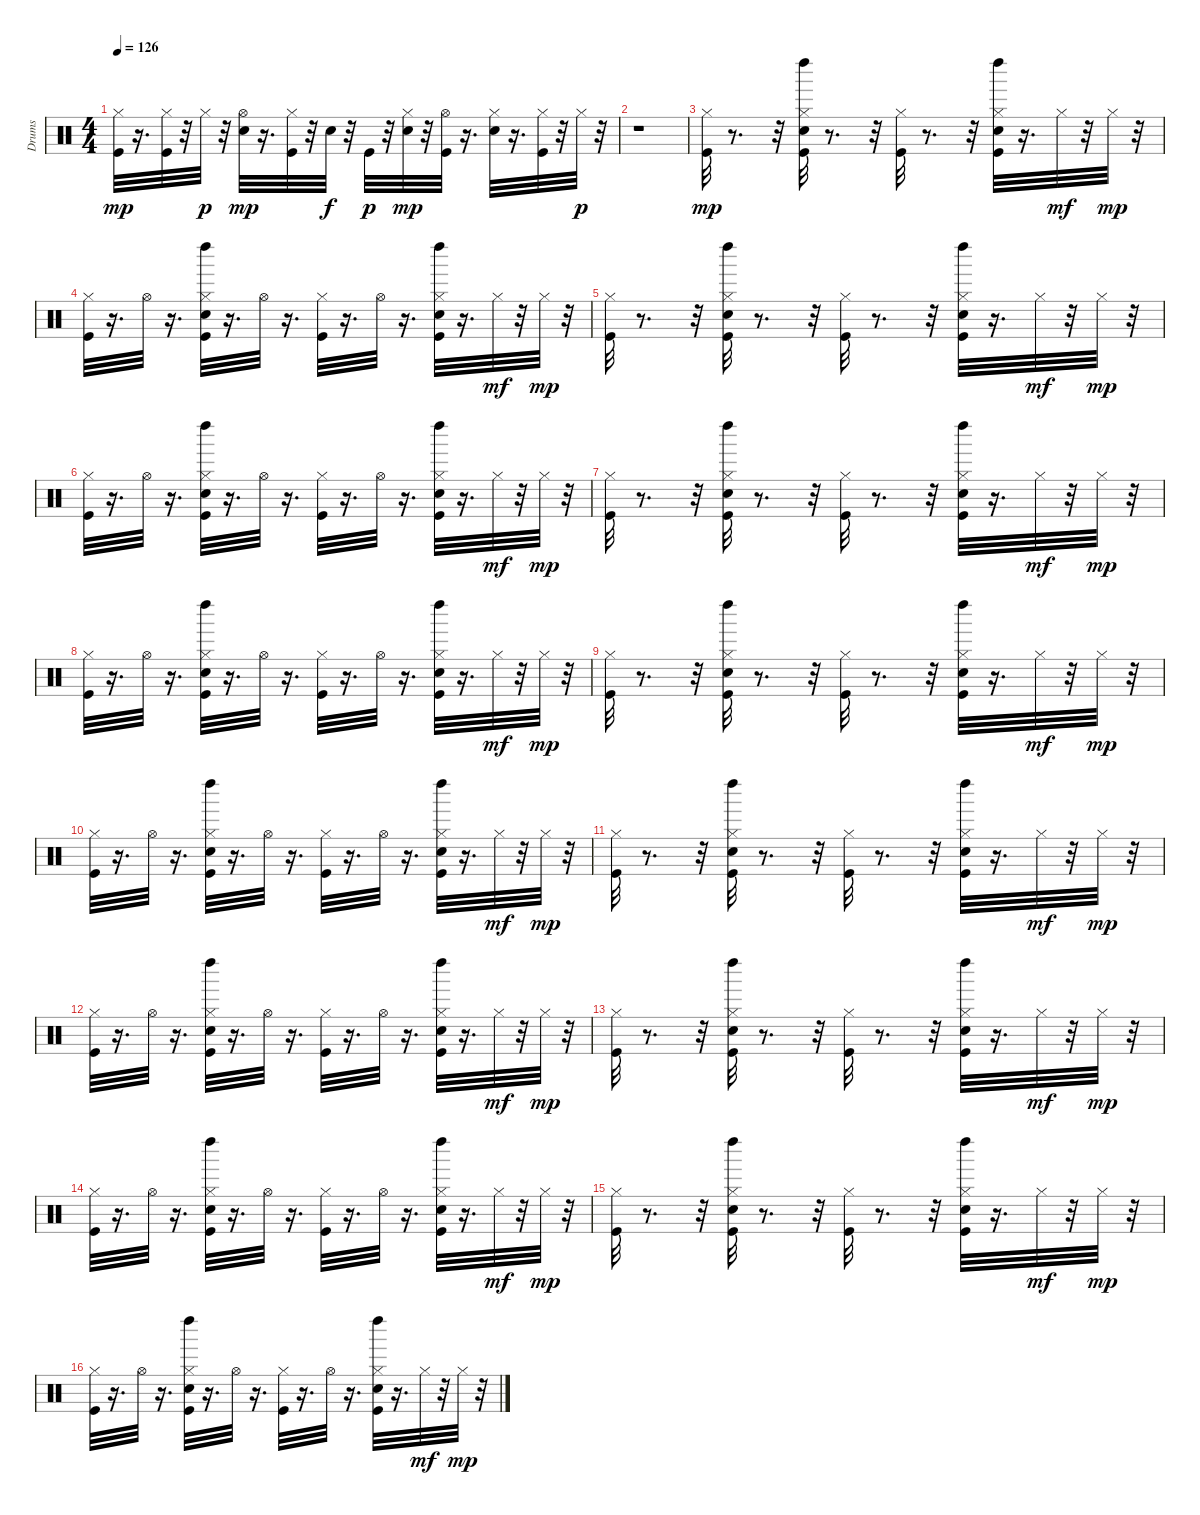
\track ("Drums" "Drums") {instrument percussion}
\staff {score}
\articulation defaults
\ts (4 4)
\tempo 126
\clef neutral
\ks c
("Kick (hit)" "Hi-Hat (closed)").32{dy mp} r.16{d} ("Kick (hit)" "Hi-Hat (closed)").32 r.32 "Hi-Hat (closed)".32{dy p} r.32 ("Snare (hit) 2" "Hi-Hat (open)").32{dy mp} r.16{d} ("Kick (hit)" "Hi-Hat (closed)").32 r.32 "Snare (hit) 2".32{dy f} r.32 "Kick (hit)".32{dy p} r.32 ("Snare (hit) 2" "Hi-Hat (closed)").32{dy mp} r.32 ("Kick (hit)" "Hi-Hat (open)").32 r.16{d} ("Snare (hit) 2" "Hi-Hat (closed)").32 r.16{d} ("Kick (hit)" "Hi-Hat (closed)").32 r.32 "Hi-Hat (closed)".32{dy p} r.32 |
r.1 |
("Kick (hit)" "Hi-Hat (closed)").32{dy mp} r.8{d} r.32 ("Kick (hit)" "Hand Clap (hit)" "Hi-Hat (closed)" "Left Maraca (hit)").32 r.8{d} r.32 ("Kick (hit)" "Hi-Hat (closed)").32 r.8{d} r.32 ("Kick (hit)" "Hand Clap (hit)" "Hi-Hat (closed)" "Left Maraca (hit)").32 r.16{d} "Hi-Hat (closed)".32{dy mf} r.32 "Hi-Hat (closed)".32{dy mp} r.32 |
("Kick (hit)" "Hi-Hat (closed)").32 r.16{d} "Hi-Hat (open)".32 r.16{d} ("Kick (hit)" "Hand Clap (hit)" "Hi-Hat (closed)" "Left Maraca (hit)").32 r.16{d} "Hi-Hat (open)".32 r.16{d} ("Kick (hit)" "Hi-Hat (closed)").32 r.16{d} "Hi-Hat (open)".32 r.16{d} ("Kick (hit)" "Hand Clap (hit)" "Hi-Hat (closed)" "Left Maraca (hit)").32 r.16{d} "Hi-Hat (closed)".32{dy mf} r.32 "Hi-Hat (closed)".32{dy mp} r.32 |
("Kick (hit)" "Hi-Hat (closed)").32 r.8{d} r.32 ("Kick (hit)" "Hand Clap (hit)" "Hi-Hat (closed)" "Left Maraca (hit)").32 r.8{d} r.32 ("Kick (hit)" "Hi-Hat (closed)").32 r.8{d} r.32 ("Kick (hit)" "Hand Clap (hit)" "Hi-Hat (closed)" "Left Maraca (hit)").32 r.16{d} "Hi-Hat (closed)".32{dy mf} r.32 "Hi-Hat (closed)".32{dy mp} r.32 |
("Kick (hit)" "Hi-Hat (closed)").32 r.16{d} "Hi-Hat (open)".32 r.16{d} ("Kick (hit)" "Hand Clap (hit)" "Hi-Hat (closed)" "Left Maraca (hit)").32 r.16{d} "Hi-Hat (open)".32 r.16{d} ("Kick (hit)" "Hi-Hat (closed)").32 r.16{d} "Hi-Hat (open)".32 r.16{d} ("Kick (hit)" "Hand Clap (hit)" "Hi-Hat (closed)" "Left Maraca (hit)").32 r.16{d} "Hi-Hat (closed)".32{dy mf} r.32 "Hi-Hat (closed)".32{dy mp} r.32 |
("Kick (hit)" "Hi-Hat (closed)").32 r.8{d} r.32 ("Kick (hit)" "Hand Clap (hit)" "Hi-Hat (closed)" "Left Maraca (hit)").32 r.8{d} r.32 ("Kick (hit)" "Hi-Hat (closed)").32 r.8{d} r.32 ("Kick (hit)" "Hand Clap (hit)" "Hi-Hat (closed)" "Left Maraca (hit)").32 r.16{d} "Hi-Hat (closed)".32{dy mf} r.32 "Hi-Hat (closed)".32{dy mp} r.32 |
("Kick (hit)" "Hi-Hat (closed)").32 r.16{d} "Hi-Hat (open)".32 r.16{d} ("Kick (hit)" "Hand Clap (hit)" "Hi-Hat (closed)" "Left Maraca (hit)").32 r.16{d} "Hi-Hat (open)".32 r.16{d} ("Kick (hit)" "Hi-Hat (closed)").32 r.16{d} "Hi-Hat (open)".32 r.16{d} ("Kick (hit)" "Hand Clap (hit)" "Hi-Hat (closed)" "Left Maraca (hit)").32 r.16{d} "Hi-Hat (closed)".32{dy mf} r.32 "Hi-Hat (closed)".32{dy mp} r.32 |
("Kick (hit)" "Hi-Hat (closed)").32 r.8{d} r.32 ("Kick (hit)" "Hand Clap (hit)" "Hi-Hat (closed)" "Left Maraca (hit)").32 r.8{d} r.32 ("Kick (hit)" "Hi-Hat (closed)").32 r.8{d} r.32 ("Kick (hit)" "Hand Clap (hit)" "Hi-Hat (closed)" "Left Maraca (hit)").32 r.16{d} "Hi-Hat (closed)".32{dy mf} r.32 "Hi-Hat (closed)".32{dy mp} r.32 |
("Kick (hit)" "Hi-Hat (closed)").32 r.16{d} "Hi-Hat (open)".32 r.16{d} ("Kick (hit)" "Hand Clap (hit)" "Hi-Hat (closed)" "Left Maraca (hit)").32 r.16{d} "Hi-Hat (open)".32 r.16{d} ("Kick (hit)" "Hi-Hat (closed)").32 r.16{d} "Hi-Hat (open)".32 r.16{d} ("Kick (hit)" "Hand Clap (hit)" "Hi-Hat (closed)" "Left Maraca (hit)").32 r.16{d} "Hi-Hat (closed)".32{dy mf} r.32 "Hi-Hat (closed)".32{dy mp} r.32 |
("Kick (hit)" "Hi-Hat (closed)").32 r.8{d} r.32 ("Kick (hit)" "Hand Clap (hit)" "Hi-Hat (closed)" "Left Maraca (hit)").32 r.8{d} r.32 ("Kick (hit)" "Hi-Hat (closed)").32 r.8{d} r.32 ("Kick (hit)" "Hand Clap (hit)" "Hi-Hat (closed)" "Left Maraca (hit)").32 r.16{d} "Hi-Hat (closed)".32{dy mf} r.32 "Hi-Hat (closed)".32{dy mp} r.32 |
("Kick (hit)" "Hi-Hat (closed)").32 r.16{d} "Hi-Hat (open)".32 r.16{d} ("Kick (hit)" "Hand Clap (hit)" "Hi-Hat (closed)" "Left Maraca (hit)").32 r.16{d} "Hi-Hat (open)".32 r.16{d} ("Kick (hit)" "Hi-Hat (closed)").32 r.16{d} "Hi-Hat (open)".32 r.16{d} ("Kick (hit)" "Hand Clap (hit)" "Hi-Hat (closed)" "Left Maraca (hit)").32 r.16{d} "Hi-Hat (closed)".32{dy mf} r.32 "Hi-Hat (closed)".32{dy mp} r.32 |
("Kick (hit)" "Hi-Hat (closed)").32 r.8{d} r.32 ("Kick (hit)" "Hand Clap (hit)" "Hi-Hat (closed)" "Left Maraca (hit)").32 r.8{d} r.32 ("Kick (hit)" "Hi-Hat (closed)").32 r.8{d} r.32 ("Kick (hit)" "Hand Clap (hit)" "Hi-Hat (closed)" "Left Maraca (hit)").32 r.16{d} "Hi-Hat (closed)".32{dy mf} r.32 "Hi-Hat (closed)".32{dy mp} r.32 |
("Kick (hit)" "Hi-Hat (closed)").32 r.16{d} "Hi-Hat (open)".32 r.16{d} ("Kick (hit)" "Hand Clap (hit)" "Hi-Hat (closed)" "Left Maraca (hit)").32 r.16{d} "Hi-Hat (open)".32 r.16{d} ("Kick (hit)" "Hi-Hat (closed)").32 r.16{d} "Hi-Hat (open)".32 r.16{d} ("Kick (hit)" "Hand Clap (hit)" "Hi-Hat (closed)" "Left Maraca (hit)").32 r.16{d} "Hi-Hat (closed)".32{dy mf} r.32 "Hi-Hat (closed)".32{dy mp} r.32 |
("Kick (hit)" "Hi-Hat (closed)").32 r.8{d} r.32 ("Kick (hit)" "Hand Clap (hit)" "Hi-Hat (closed)" "Left Maraca (hit)").32 r.8{d} r.32 ("Kick (hit)" "Hi-Hat (closed)").32 r.8{d} r.32 ("Kick (hit)" "Hand Clap (hit)" "Hi-Hat (closed)" "Left Maraca (hit)").32 r.16{d} "Hi-Hat (closed)".32{dy mf} r.32 "Hi-Hat (closed)".32{dy mp} r.32 |
("Kick (hit)" "Hi-Hat (closed)").32 r.16{d} "Hi-Hat (open)".32 r.16{d} ("Kick (hit)" "Hand Clap (hit)" "Hi-Hat (closed)" "Left Maraca (hit)").32 r.16{d} "Hi-Hat (open)".32 r.16{d} ("Kick (hit)" "Hi-Hat (closed)").32 r.16{d} "Hi-Hat (open)".32 r.16{d} ("Kick (hit)" "Hand Clap (hit)" "Hi-Hat (closed)" "Left Maraca (hit)").32 r.16{d} "Hi-Hat (closed)".32{dy mf} r.32 "Hi-Hat (closed)".32{dy mp} r.32
